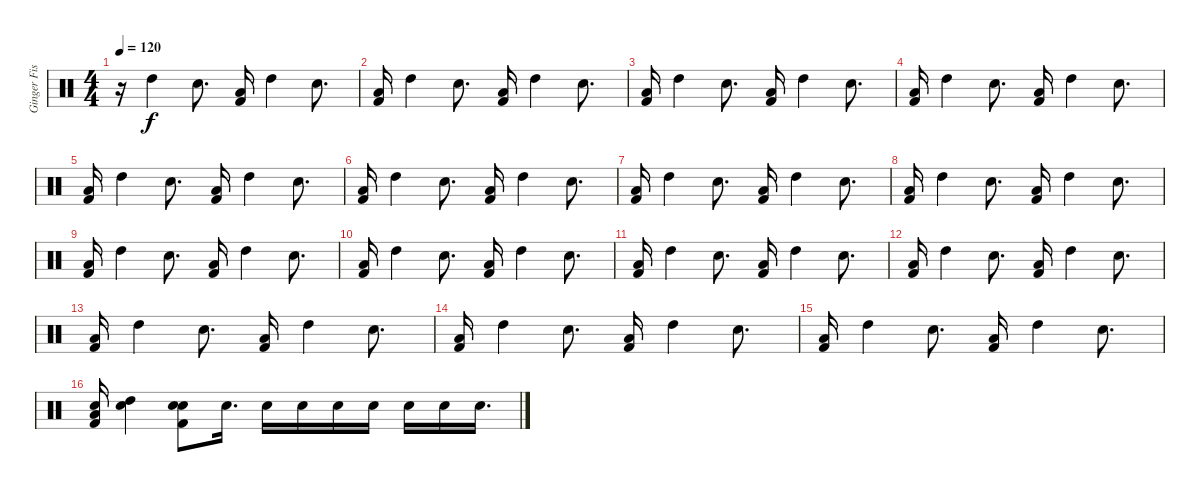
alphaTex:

\track ("Ginger Fish" "Ginger Fis") {instrument percussion}
\staff {score}
\articulation defaults
\ts (4 4)
\tempo 120
\clef neutral
\ks c
r.16{dy f} "High Tom (hit)".4 "Electric Snare (hit)".8{d} ("Low Tom (hit)" "Kick (hit) 2").16 "High Tom (hit)".4 "Electric Snare (hit)".8{d} |
("Low Tom (hit)" "Kick (hit) 2").16 "High Tom (hit)".4 "Electric Snare (hit)".8{d} ("Low Tom (hit)" "Kick (hit) 2").16 "High Tom (hit)".4 "Electric Snare (hit)".8{d} |
("Low Tom (hit)" "Kick (hit) 2").16 "High Tom (hit)".4 "Electric Snare (hit)".8{d} ("Low Tom (hit)" "Kick (hit) 2").16 "High Tom (hit)".4 "Electric Snare (hit)".8{d} |
("Low Tom (hit)" "Kick (hit) 2").16 "High Tom (hit)".4 "Electric Snare (hit)".8{d} ("Low Tom (hit)" "Kick (hit) 2").16 "High Tom (hit)".4 "Electric Snare (hit)".8{d} |
("Low Tom (hit)" "Kick (hit) 2").16 "High Tom (hit)".4 "Electric Snare (hit)".8{d} ("Low Tom (hit)" "Kick (hit) 2").16 "High Tom (hit)".4 "Electric Snare (hit)".8{d} |
("Low Tom (hit)" "Kick (hit) 2").16 "High Tom (hit)".4 "Electric Snare (hit)".8{d} ("Low Tom (hit)" "Kick (hit) 2").16 "High Tom (hit)".4 "Electric Snare (hit)".8{d} |
("Low Tom (hit)" "Kick (hit) 2").16 "High Tom (hit)".4 "Electric Snare (hit)".8{d} ("Low Tom (hit)" "Kick (hit) 2").16 "High Tom (hit)".4 "Electric Snare (hit)".8{d} |
("Low Tom (hit)" "Kick (hit) 2").16 "High Tom (hit)".4 "Electric Snare (hit)".8{d} ("Low Tom (hit)" "Kick (hit) 2").16 "High Tom (hit)".4 "Electric Snare (hit)".8{d} |
("Low Tom (hit)" "Kick (hit) 2").16 "High Tom (hit)".4 "Electric Snare (hit)".8{d} ("Low Tom (hit)" "Kick (hit) 2").16 "High Tom (hit)".4 "Electric Snare (hit)".8{d} |
("Low Tom (hit)" "Kick (hit) 2").16 "High Tom (hit)".4 "Electric Snare (hit)".8{d} ("Low Tom (hit)" "Kick (hit) 2").16 "High Tom (hit)".4 "Electric Snare (hit)".8{d} |
("Low Tom (hit)" "Kick (hit) 2").16 "High Tom (hit)".4 "Electric Snare (hit)".8{d} ("Low Tom (hit)" "Kick (hit) 2").16 "High Tom (hit)".4 "Electric Snare (hit)".8{d} |
("Low Tom (hit)" "Kick (hit) 2").16 "High Tom (hit)".4 "Electric Snare (hit)".8{d} ("Low Tom (hit)" "Kick (hit) 2").16 "High Tom (hit)".4 "Electric Snare (hit)".8{d} |
("Low Tom (hit)" "Kick (hit) 2").16 "High Tom (hit)".4 "Electric Snare (hit)".8{d} ("Low Tom (hit)" "Kick (hit) 2").16 "High Tom (hit)".4 "Electric Snare (hit)".8{d} |
("Low Tom (hit)" "Kick (hit) 2").16 "High Tom (hit)".4 "Electric Snare (hit)".8{d} ("Low Tom (hit)" "Kick (hit) 2").16 "High Tom (hit)".4 "Electric Snare (hit)".8{d} |
("Low Tom (hit)" "Kick (hit) 2").16 "High Tom (hit)".4 "Electric Snare (hit)".8{d} ("Low Tom (hit)" "Kick (hit) 2").16 "High Tom (hit)".4 "Electric Snare (hit)".8{d} |
("Electric Snare (hit)" "Low Tom (hit)" "Kick (hit) 2").16 ("Electric Snare (hit)" "High Tom (hit)").4 ("Electric Snare (hit)" "Kick (hit) 2" "Snare (hit) 2").8 "Electric Snare (hit)".16{d} "Electric Snare (hit)".16 "Electric Snare (hit)".16 "Electric Snare (hit)".16 "Electric Snare (hit)".16 "Electric Snare (hit)".16 "Electric Snare (hit)".16 "Electric Snare (hit)".16{d}
